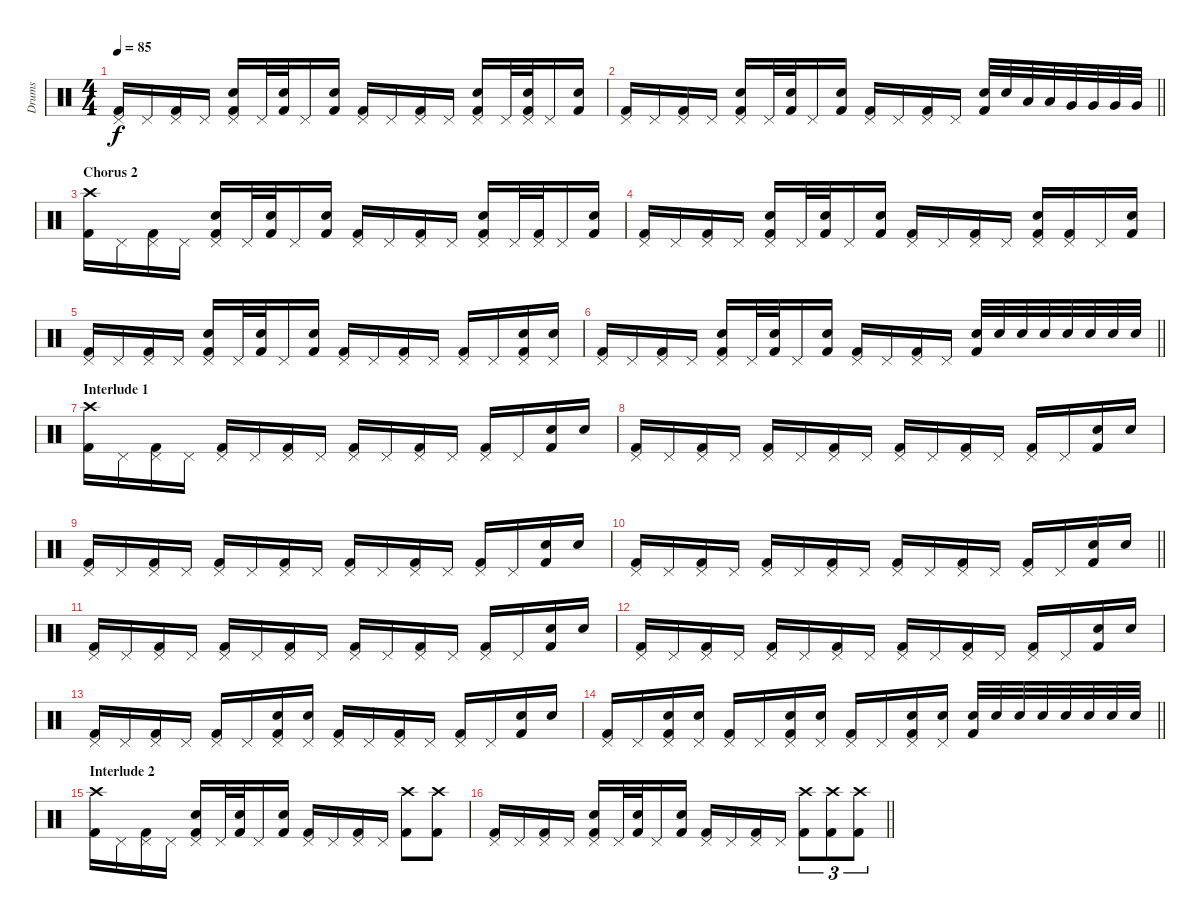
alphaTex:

\track ("Drums" "Drums") {instrument percussion}
\staff {score}
\articulation defaults
\ts (4 4)
\tempo 85
\clef neutral
\ks c
("Kick (hit) 2" "Pedal Hi-Hat (hit)").16{dy f} "Pedal Hi-Hat (hit)".16 ("Kick (hit) 2" "Pedal Hi-Hat (hit)").16 "Pedal Hi-Hat (hit)".16 ("Kick (hit) 2" "Snare (hit) 2" "Pedal Hi-Hat (hit)").16 "Pedal Hi-Hat (hit)".32 ("Kick (hit) 2" "Snare (hit) 2").32 "Pedal Hi-Hat (hit)".16 ("Kick (hit) 2" "Snare (hit) 2").16 ("Kick (hit) 2" "Pedal Hi-Hat (hit)").16 "Pedal Hi-Hat (hit)".16 ("Kick (hit) 2" "Pedal Hi-Hat (hit)").16 "Pedal Hi-Hat (hit)".16 ("Kick (hit) 2" "Snare (hit) 2" "Pedal Hi-Hat (hit)").16 "Pedal Hi-Hat (hit)".32 ("Kick (hit) 2" "Snare (hit) 2" "Pedal Hi-Hat (hit)").32 "Pedal Hi-Hat (hit)".16 ("Kick (hit) 2" "Snare (hit) 2").16 |
\barLineRight lightlight
("Kick (hit) 2" "Pedal Hi-Hat (hit)").16 "Pedal Hi-Hat (hit)".16 ("Kick (hit) 2" "Pedal Hi-Hat (hit)").16 "Pedal Hi-Hat (hit)".16 ("Kick (hit) 2" "Snare (hit) 2" "Pedal Hi-Hat (hit)").16 "Pedal Hi-Hat (hit)".32 ("Kick (hit) 2" "Snare (hit) 2").32 "Pedal Hi-Hat (hit)".16 ("Kick (hit) 2" "Snare (hit) 2").16 ("Kick (hit) 2" "Pedal Hi-Hat (hit)").16 "Pedal Hi-Hat (hit)".16 ("Kick (hit) 2" "Pedal Hi-Hat (hit)").16 "Pedal Hi-Hat (hit)".16 ("Kick (hit) 2" "Snare (hit) 2").32 "Snare (hit) 2".32 "Low Tom (hit)".32 "Low Tom (hit)".32 "Very Low Tom (hit)".32 "Very Low Tom (hit)".32 "Very Low Tom (hit)".32 "Very Low Tom (hit)".32 |
\section ("" "Chorus 2")
("Kick (hit) 2" "Crash high (hit)").16 "Pedal Hi-Hat (hit)".16 ("Kick (hit) 2" "Pedal Hi-Hat (hit)").16 "Pedal Hi-Hat (hit)".16 ("Kick (hit) 2" "Snare (hit) 2" "Pedal Hi-Hat (hit)").16 "Pedal Hi-Hat (hit)".32 ("Kick (hit) 2" "Snare (hit) 2").32 "Pedal Hi-Hat (hit)".16 ("Kick (hit) 2" "Snare (hit) 2").16 ("Kick (hit) 2" "Pedal Hi-Hat (hit)").16 "Pedal Hi-Hat (hit)".16 ("Kick (hit) 2" "Pedal Hi-Hat (hit)").16 "Pedal Hi-Hat (hit)".16 ("Kick (hit) 2" "Snare (hit) 2" "Pedal Hi-Hat (hit)").16 "Pedal Hi-Hat (hit)".32 ("Kick (hit) 2" "Pedal Hi-Hat (hit)").32 "Pedal Hi-Hat (hit)".16 ("Kick (hit) 2" "Snare (hit) 2").16 |
("Kick (hit) 2" "Pedal Hi-Hat (hit)").16 "Pedal Hi-Hat (hit)".16 ("Kick (hit) 2" "Pedal Hi-Hat (hit)").16 "Pedal Hi-Hat (hit)".16 ("Kick (hit) 2" "Snare (hit) 2" "Pedal Hi-Hat (hit)").16 "Pedal Hi-Hat (hit)".32 ("Kick (hit) 2" "Snare (hit) 2").32 "Pedal Hi-Hat (hit)".16 ("Kick (hit) 2" "Snare (hit) 2").16 ("Kick (hit) 2" "Pedal Hi-Hat (hit)").16 "Pedal Hi-Hat (hit)".16 ("Kick (hit) 2" "Pedal Hi-Hat (hit)").16 "Pedal Hi-Hat (hit)".16 ("Kick (hit) 2" "Snare (hit) 2" "Pedal Hi-Hat (hit)").16 ("Kick (hit) 2" "Pedal Hi-Hat (hit)").16 "Pedal Hi-Hat (hit)".16 ("Kick (hit) 2" "Snare (hit) 2").16 |
("Kick (hit) 2" "Pedal Hi-Hat (hit)").16 "Pedal Hi-Hat (hit)".16 ("Kick (hit) 2" "Pedal Hi-Hat (hit)").16 "Pedal Hi-Hat (hit)".16 ("Kick (hit) 2" "Snare (hit) 2" "Pedal Hi-Hat (hit)").16 "Pedal Hi-Hat (hit)".32 ("Kick (hit) 2" "Snare (hit) 2").32 "Pedal Hi-Hat (hit)".16 ("Kick (hit) 2" "Snare (hit) 2").16 ("Kick (hit) 2" "Pedal Hi-Hat (hit)").16 "Pedal Hi-Hat (hit)".16 ("Kick (hit) 2" "Pedal Hi-Hat (hit)").16 "Pedal Hi-Hat (hit)".16 ("Kick (hit) 2" "Pedal Hi-Hat (hit)").16 "Pedal Hi-Hat (hit)".16 ("Kick (hit) 2" "Snare (hit) 2" "Pedal Hi-Hat (hit)").16 ("Snare (hit) 2" "Pedal Hi-Hat (hit)").16 |
\barLineRight lightlight
("Kick (hit) 2" "Pedal Hi-Hat (hit)").16 "Pedal Hi-Hat (hit)".16 ("Kick (hit) 2" "Pedal Hi-Hat (hit)").16 "Pedal Hi-Hat (hit)".16 ("Kick (hit) 2" "Snare (hit) 2" "Pedal Hi-Hat (hit)").16 "Pedal Hi-Hat (hit)".32 ("Kick (hit) 2" "Snare (hit) 2").32 "Pedal Hi-Hat (hit)".16 ("Kick (hit) 2" "Snare (hit) 2").16 ("Kick (hit) 2" "Pedal Hi-Hat (hit)").16 "Pedal Hi-Hat (hit)".16 ("Kick (hit) 2" "Pedal Hi-Hat (hit)").16 "Pedal Hi-Hat (hit)".16 ("Kick (hit) 2" "Snare (hit) 2").32 "Snare (hit) 2".32 "Snare (hit) 2".32 "Snare (hit) 2".32 "Snare (hit) 2".32 "Snare (hit) 2".32 "Snare (hit) 2".32 "Snare (hit) 2".32 |
\section ("" "Interlude 1")
("Kick (hit) 2" "Crash high (hit)").16 "Pedal Hi-Hat (hit)".16 ("Kick (hit) 2" "Pedal Hi-Hat (hit)").16 "Pedal Hi-Hat (hit)".16 ("Kick (hit) 2" "Pedal Hi-Hat (hit)").16 "Pedal Hi-Hat (hit)".16 ("Kick (hit) 2" "Pedal Hi-Hat (hit)").16 "Pedal Hi-Hat (hit)".16 ("Kick (hit) 2" "Pedal Hi-Hat (hit)").16 "Pedal Hi-Hat (hit)".16 ("Kick (hit) 2" "Pedal Hi-Hat (hit)").16 "Pedal Hi-Hat (hit)".16 ("Kick (hit) 2" "Pedal Hi-Hat (hit)").16 "Pedal Hi-Hat (hit)".16 ("Kick (hit) 2" "Snare (hit) 2").16 "Snare (hit) 2".16 |
("Kick (hit) 2" "Pedal Hi-Hat (hit)").16 "Pedal Hi-Hat (hit)".16 ("Kick (hit) 2" "Pedal Hi-Hat (hit)").16 "Pedal Hi-Hat (hit)".16 ("Kick (hit) 2" "Pedal Hi-Hat (hit)").16 "Pedal Hi-Hat (hit)".16 ("Kick (hit) 2" "Pedal Hi-Hat (hit)").16 "Pedal Hi-Hat (hit)".16 ("Kick (hit) 2" "Pedal Hi-Hat (hit)").16 "Pedal Hi-Hat (hit)".16 ("Kick (hit) 2" "Pedal Hi-Hat (hit)").16 "Pedal Hi-Hat (hit)".16 ("Kick (hit) 2" "Pedal Hi-Hat (hit)").16 "Pedal Hi-Hat (hit)".16 ("Kick (hit) 2" "Snare (hit) 2").16 "Snare (hit) 2".16 |
("Kick (hit) 2" "Pedal Hi-Hat (hit)").16 "Pedal Hi-Hat (hit)".16 ("Kick (hit) 2" "Pedal Hi-Hat (hit)").16 "Pedal Hi-Hat (hit)".16 ("Kick (hit) 2" "Pedal Hi-Hat (hit)").16 "Pedal Hi-Hat (hit)".16 ("Kick (hit) 2" "Pedal Hi-Hat (hit)").16 "Pedal Hi-Hat (hit)".16 ("Kick (hit) 2" "Pedal Hi-Hat (hit)").16 "Pedal Hi-Hat (hit)".16 ("Kick (hit) 2" "Pedal Hi-Hat (hit)").16 "Pedal Hi-Hat (hit)".16 ("Kick (hit) 2" "Pedal Hi-Hat (hit)").16 "Pedal Hi-Hat (hit)".16 ("Kick (hit) 2" "Snare (hit) 2").16 "Snare (hit) 2".16 |
\barLineRight lightlight
("Kick (hit) 2" "Pedal Hi-Hat (hit)").16 "Pedal Hi-Hat (hit)".16 ("Kick (hit) 2" "Pedal Hi-Hat (hit)").16 "Pedal Hi-Hat (hit)".16 ("Kick (hit) 2" "Pedal Hi-Hat (hit)").16 "Pedal Hi-Hat (hit)".16 ("Kick (hit) 2" "Pedal Hi-Hat (hit)").16 "Pedal Hi-Hat (hit)".16 ("Kick (hit) 2" "Pedal Hi-Hat (hit)").16 "Pedal Hi-Hat (hit)".16 ("Kick (hit) 2" "Pedal Hi-Hat (hit)").16 "Pedal Hi-Hat (hit)".16 ("Kick (hit) 2" "Pedal Hi-Hat (hit)").16 "Pedal Hi-Hat (hit)".16 ("Kick (hit) 2" "Snare (hit) 2").16 "Snare (hit) 2".16 |
("Kick (hit) 2" "Pedal Hi-Hat (hit)").16 "Pedal Hi-Hat (hit)".16 ("Kick (hit) 2" "Pedal Hi-Hat (hit)").16 "Pedal Hi-Hat (hit)".16 ("Kick (hit) 2" "Pedal Hi-Hat (hit)").16 "Pedal Hi-Hat (hit)".16 ("Kick (hit) 2" "Pedal Hi-Hat (hit)").16 "Pedal Hi-Hat (hit)".16 ("Kick (hit) 2" "Pedal Hi-Hat (hit)").16 "Pedal Hi-Hat (hit)".16 ("Kick (hit) 2" "Pedal Hi-Hat (hit)").16 "Pedal Hi-Hat (hit)".16 ("Kick (hit) 2" "Pedal Hi-Hat (hit)").16 "Pedal Hi-Hat (hit)".16 ("Kick (hit) 2" "Snare (hit) 2").16 "Snare (hit) 2".16 |
("Kick (hit) 2" "Pedal Hi-Hat (hit)").16 "Pedal Hi-Hat (hit)".16 ("Kick (hit) 2" "Pedal Hi-Hat (hit)").16 "Pedal Hi-Hat (hit)".16 ("Kick (hit) 2" "Pedal Hi-Hat (hit)").16 "Pedal Hi-Hat (hit)".16 ("Kick (hit) 2" "Pedal Hi-Hat (hit)").16 "Pedal Hi-Hat (hit)".16 ("Kick (hit) 2" "Pedal Hi-Hat (hit)").16 "Pedal Hi-Hat (hit)".16 ("Kick (hit) 2" "Pedal Hi-Hat (hit)").16 "Pedal Hi-Hat (hit)".16 ("Kick (hit) 2" "Pedal Hi-Hat (hit)").16 "Pedal Hi-Hat (hit)".16 ("Kick (hit) 2" "Snare (hit) 2").16 "Snare (hit) 2".16 |
("Kick (hit) 2" "Pedal Hi-Hat (hit)").16 "Pedal Hi-Hat (hit)".16 ("Kick (hit) 2" "Pedal Hi-Hat (hit)").16 "Pedal Hi-Hat (hit)".16 ("Kick (hit) 2" "Pedal Hi-Hat (hit)").16 "Pedal Hi-Hat (hit)".16 ("Kick (hit) 2" "Snare (hit) 2" "Pedal Hi-Hat (hit)").16 ("Snare (hit) 2" "Pedal Hi-Hat (hit)").16 ("Kick (hit) 2" "Pedal Hi-Hat (hit)").16 "Pedal Hi-Hat (hit)".16 ("Kick (hit) 2" "Pedal Hi-Hat (hit)").16 "Pedal Hi-Hat (hit)".16 ("Kick (hit) 2" "Pedal Hi-Hat (hit)").16 "Pedal Hi-Hat (hit)".16 ("Kick (hit) 2" "Snare (hit) 2").16 "Snare (hit) 2".16 |
\barLineRight lightlight
("Kick (hit) 2" "Pedal Hi-Hat (hit)").16 "Pedal Hi-Hat (hit)".16 ("Kick (hit) 2" "Snare (hit) 2" "Pedal Hi-Hat (hit)").16 ("Snare (hit) 2" "Pedal Hi-Hat (hit)").16 ("Kick (hit) 2" "Pedal Hi-Hat (hit)").16 "Pedal Hi-Hat (hit)".16 ("Kick (hit) 2" "Snare (hit) 2" "Pedal Hi-Hat (hit)").16 ("Snare (hit) 2" "Pedal Hi-Hat (hit)").16 ("Kick (hit) 2" "Pedal Hi-Hat (hit)").16 "Pedal Hi-Hat (hit)".16 ("Kick (hit) 2" "Snare (hit) 2" "Pedal Hi-Hat (hit)").16 ("Snare (hit) 2" "Pedal Hi-Hat (hit)").16 ("Kick (hit) 2" "Snare (hit) 2").32 "Snare (hit) 2".32 "Snare (hit) 2".32 "Snare (hit) 2".32 "Snare (hit) 2".32 "Snare (hit) 2".32 "Snare (hit) 2".32 "Snare (hit) 2".32 |
\section ("" "Interlude 2")
("Kick (hit) 2" "Crash high (hit)").16 "Pedal Hi-Hat (hit)".16 ("Kick (hit) 2" "Pedal Hi-Hat (hit)").16 "Pedal Hi-Hat (hit)".16 ("Kick (hit) 2" "Snare (hit) 2" "Pedal Hi-Hat (hit)").16 "Pedal Hi-Hat (hit)".32 ("Kick (hit) 2" "Snare (hit) 2").32 "Pedal Hi-Hat (hit)".16 ("Kick (hit) 2" "Snare (hit) 2").16 ("Kick (hit) 2" "Pedal Hi-Hat (hit)").16 "Pedal Hi-Hat (hit)".16 ("Kick (hit) 2" "Pedal Hi-Hat (hit)").16 "Pedal Hi-Hat (hit)".16 ("Kick (hit) 2" "Crash high (hit)").8 ("Kick (hit) 2" "Crash high (hit)").8 |
\barLineRight lightlight
("Kick (hit) 2" "Pedal Hi-Hat (hit)").16 "Pedal Hi-Hat (hit)".16 ("Kick (hit) 2" "Pedal Hi-Hat (hit)").16 "Pedal Hi-Hat (hit)".16 ("Kick (hit) 2" "Snare (hit) 2" "Pedal Hi-Hat (hit)").16 "Pedal Hi-Hat (hit)".32 ("Kick (hit) 2" "Snare (hit) 2").32 "Pedal Hi-Hat (hit)".16 ("Kick (hit) 2" "Snare (hit) 2").16 ("Kick (hit) 2" "Pedal Hi-Hat (hit)").16 "Pedal Hi-Hat (hit)".16 ("Kick (hit) 2" "Pedal Hi-Hat (hit)").16 "Pedal Hi-Hat (hit)".16 ("Kick (hit) 2" "Crash high (hit)").8{tu (3 2)} ("Kick (hit) 2" "Crash high (hit)").8{tu (3 2)} ("Kick (hit) 2" "Crash high (hit)").8{tu (3 2)}
